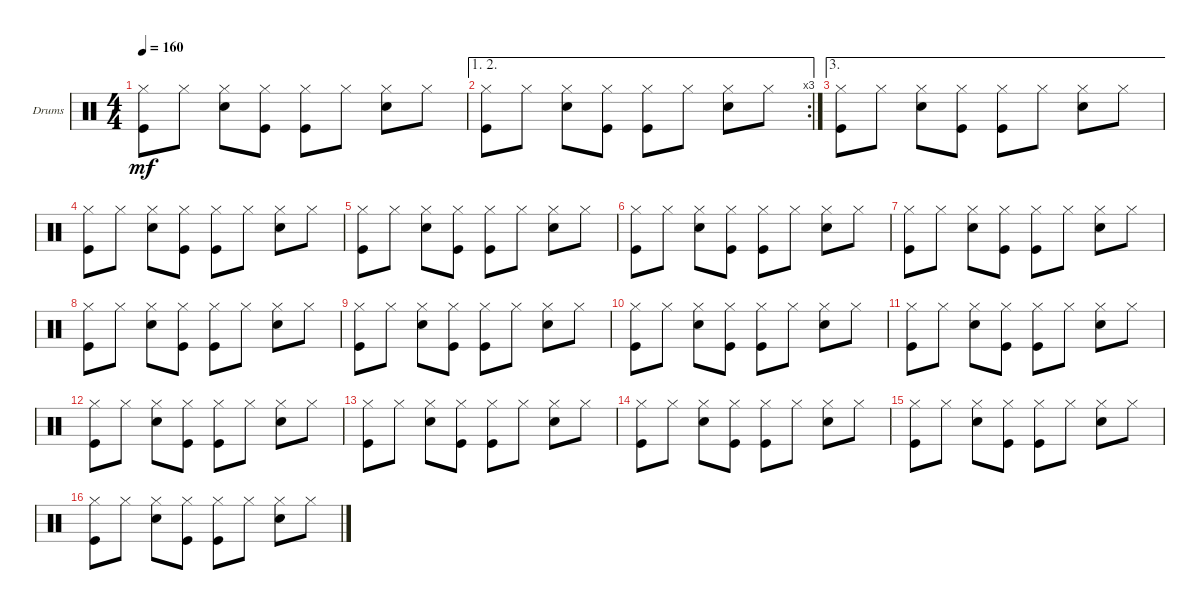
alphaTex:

\defaultSystemsLayout 4
\bracketExtendMode groupsimilarinstruments
\firstSystemTrackNameOrientation horizontal
\otherSystemsTrackNameOrientation horizontal
\track ("Drumkit" "Drums") {instrument percussion}
\staff {score}
\articulation defaults
\ts (4 4)
\tempo 160
\clef neutral
\scale
0.322034
\ks c
("Hi-Hat (closed)" "Kick (hit)").8{dy mf} "Hi-Hat (closed)".8 ("Hi-Hat (closed)" "Snare (hit) 2").8 ("Hi-Hat (closed)" "Kick (hit)").8 ("Hi-Hat (closed)" "Kick (hit)").8 "Hi-Hat (closed)".8 ("Hi-Hat (closed)" "Snare (hit) 2").8 "Hi-Hat (closed)".8 |
\ae (1 2)
\rc 3
\scale
0.355932 ("Hi-Hat (closed)" "Kick (hit)").8 "Hi-Hat (closed)".8 ("Hi-Hat (closed)" "Snare (hit) 2").8 ("Hi-Hat (closed)" "Kick (hit)").8 ("Hi-Hat (closed)" "Kick (hit)").8 "Hi-Hat (closed)".8 ("Hi-Hat (closed)" "Snare (hit) 2").8 "Hi-Hat (closed)".8 |
\ae 3
\scale
0.333333 ("Hi-Hat (closed)" "Kick (hit)").8 "Hi-Hat (closed)".8 ("Hi-Hat (closed)" "Snare (hit) 2").8 ("Hi-Hat (closed)" "Kick (hit)").8 ("Hi-Hat (closed)" "Kick (hit)").8 "Hi-Hat (closed)".8 ("Hi-Hat (closed)" "Snare (hit) 2").8 "Hi-Hat (closed)".8 |
("Hi-Hat (closed)" "Kick (hit)").8 "Hi-Hat (closed)".8 ("Hi-Hat (closed)" "Snare (hit) 2").8 ("Hi-Hat (closed)" "Kick (hit)").8 ("Hi-Hat (closed)" "Kick (hit)").8 "Hi-Hat (closed)".8 ("Hi-Hat (closed)" "Snare (hit) 2").8 "Hi-Hat (closed)".8 |
("Hi-Hat (closed)" "Kick (hit)").8 "Hi-Hat (closed)".8 ("Hi-Hat (closed)" "Snare (hit) 2").8 ("Hi-Hat (closed)" "Kick (hit)").8 ("Hi-Hat (closed)" "Kick (hit)").8 "Hi-Hat (closed)".8 ("Hi-Hat (closed)" "Snare (hit) 2").8 "Hi-Hat (closed)".8 |
\scale
0.333333 ("Hi-Hat (closed)" "Kick (hit)").8 "Hi-Hat (closed)".8 ("Hi-Hat (closed)" "Snare (hit) 2").8 ("Hi-Hat (closed)" "Kick (hit)").8 ("Hi-Hat (closed)" "Kick (hit)").8 "Hi-Hat (closed)".8 ("Hi-Hat (closed)" "Snare (hit) 2").8 "Hi-Hat (closed)".8 |
\scale
0.333333 ("Hi-Hat (closed)" "Kick (hit)").8 "Hi-Hat (closed)".8 ("Hi-Hat (closed)" "Snare (hit) 2").8 ("Hi-Hat (closed)" "Kick (hit)").8 ("Hi-Hat (closed)" "Kick (hit)").8 "Hi-Hat (closed)".8 ("Hi-Hat (closed)" "Snare (hit) 2").8 "Hi-Hat (closed)".8 |
\scale
0.333333 ("Hi-Hat (closed)" "Kick (hit)").8 "Hi-Hat (closed)".8 ("Hi-Hat (closed)" "Snare (hit) 2").8 ("Hi-Hat (closed)" "Kick (hit)").8 ("Hi-Hat (closed)" "Kick (hit)").8 "Hi-Hat (closed)".8 ("Hi-Hat (closed)" "Snare (hit) 2").8 "Hi-Hat (closed)".8 |
\scale
0.333333 ("Hi-Hat (closed)" "Kick (hit)").8 "Hi-Hat (closed)".8 ("Hi-Hat (closed)" "Snare (hit) 2").8 ("Hi-Hat (closed)" "Kick (hit)").8 ("Hi-Hat (closed)" "Kick (hit)").8 "Hi-Hat (closed)".8 ("Hi-Hat (closed)" "Snare (hit) 2").8 "Hi-Hat (closed)".8 |
\scale
0.333333 ("Hi-Hat (closed)" "Kick (hit)").8 "Hi-Hat (closed)".8 ("Hi-Hat (closed)" "Snare (hit) 2").8 ("Hi-Hat (closed)" "Kick (hit)").8 ("Hi-Hat (closed)" "Kick (hit)").8 "Hi-Hat (closed)".8 ("Hi-Hat (closed)" "Snare (hit) 2").8 "Hi-Hat (closed)".8 |
\scale
0.333333 ("Hi-Hat (closed)" "Kick (hit)").8 "Hi-Hat (closed)".8 ("Hi-Hat (closed)" "Snare (hit) 2").8 ("Hi-Hat (closed)" "Kick (hit)").8 ("Hi-Hat (closed)" "Kick (hit)").8 "Hi-Hat (closed)".8 ("Hi-Hat (closed)" "Snare (hit) 2").8 "Hi-Hat (closed)".8 |
\scale
0.333333 ("Hi-Hat (closed)" "Kick (hit)").8 "Hi-Hat (closed)".8 ("Hi-Hat (closed)" "Snare (hit) 2").8 ("Hi-Hat (closed)" "Kick (hit)").8 ("Hi-Hat (closed)" "Kick (hit)").8 "Hi-Hat (closed)".8 ("Hi-Hat (closed)" "Snare (hit) 2").8 "Hi-Hat (closed)".8 |
\scale
0.333333 ("Hi-Hat (closed)" "Kick (hit)").8 "Hi-Hat (closed)".8 ("Hi-Hat (closed)" "Snare (hit) 2").8 ("Hi-Hat (closed)" "Kick (hit)").8 ("Hi-Hat (closed)" "Kick (hit)").8 "Hi-Hat (closed)".8 ("Hi-Hat (closed)" "Snare (hit) 2").8 "Hi-Hat (closed)".8 |
\scale
0.333333 ("Hi-Hat (closed)" "Kick (hit)").8 "Hi-Hat (closed)".8 ("Hi-Hat (closed)" "Snare (hit) 2").8 ("Hi-Hat (closed)" "Kick (hit)").8 ("Hi-Hat (closed)" "Kick (hit)").8 "Hi-Hat (closed)".8 ("Hi-Hat (closed)" "Snare (hit) 2").8 "Hi-Hat (closed)".8 |
\scale
0.333333 ("Hi-Hat (closed)" "Kick (hit)").8 "Hi-Hat (closed)".8 ("Hi-Hat (closed)" "Snare (hit) 2").8 ("Hi-Hat (closed)" "Kick (hit)").8 ("Hi-Hat (closed)" "Kick (hit)").8 "Hi-Hat (closed)".8 ("Hi-Hat (closed)" "Snare (hit) 2").8 "Hi-Hat (closed)".8 |
\scale
0.333333 ("Hi-Hat (closed)" "Kick (hit)").8 "Hi-Hat (closed)".8 ("Hi-Hat (closed)" "Snare (hit) 2").8 ("Hi-Hat (closed)" "Kick (hit)").8 ("Hi-Hat (closed)" "Kick (hit)").8 "Hi-Hat (closed)".8 ("Hi-Hat (closed)" "Snare (hit) 2").8 "Hi-Hat (closed)".8
